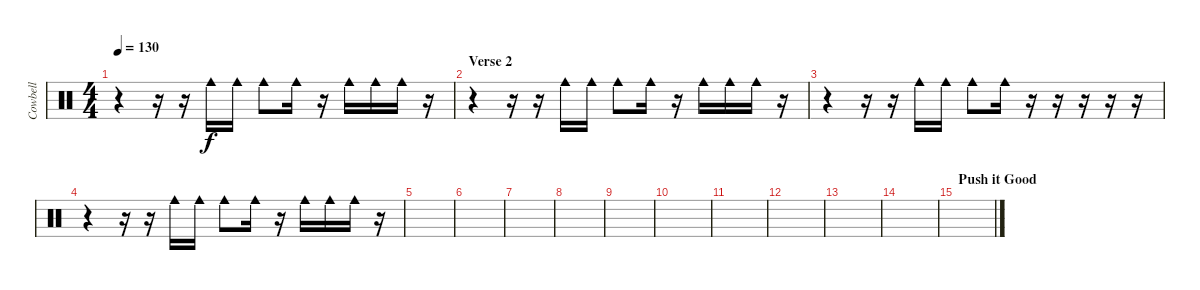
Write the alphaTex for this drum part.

\track ("Cowbell" "Cowbell") {instrument percussion}
\staff {score}
\articulation defaults
\ts (4 4)
\tempo 130
\clef neutral
\ks c
r.4{dy f} r.16 r.16 "Cowbell medium (hit)".16 "Cowbell medium (hit)".16 "Cowbell medium (hit)".8 "Cowbell medium (hit)".16 r.16 "Cowbell medium (hit)".16 "Cowbell medium (hit)".16 "Cowbell medium (hit)".16 r.16 |
\section ("" "Verse 2")
r.4 r.16 r.16 "Cowbell medium (hit)".16 "Cowbell medium (hit)".16 "Cowbell medium (hit)".8 "Cowbell medium (hit)".16 r.16 "Cowbell medium (hit)".16 "Cowbell medium (hit)".16 "Cowbell medium (hit)".16 r.16 |
r.4 r.16 r.16 "Cowbell medium (hit)".16 "Cowbell medium (hit)".16 "Cowbell medium (hit)".8 "Cowbell medium (hit)".16 r.16 r.16 r.16 r.16 r.16 |
r.4 r.16 r.16 "Cowbell medium (hit)".16 "Cowbell medium (hit)".16 "Cowbell medium (hit)".8 "Cowbell medium (hit)".16 r.16 "Cowbell medium (hit)".16 "Cowbell medium (hit)".16 "Cowbell medium (hit)".16 r.16 |
|
|
|
|
|
|
|
|
|
|
\section ("" "Push it Good")
